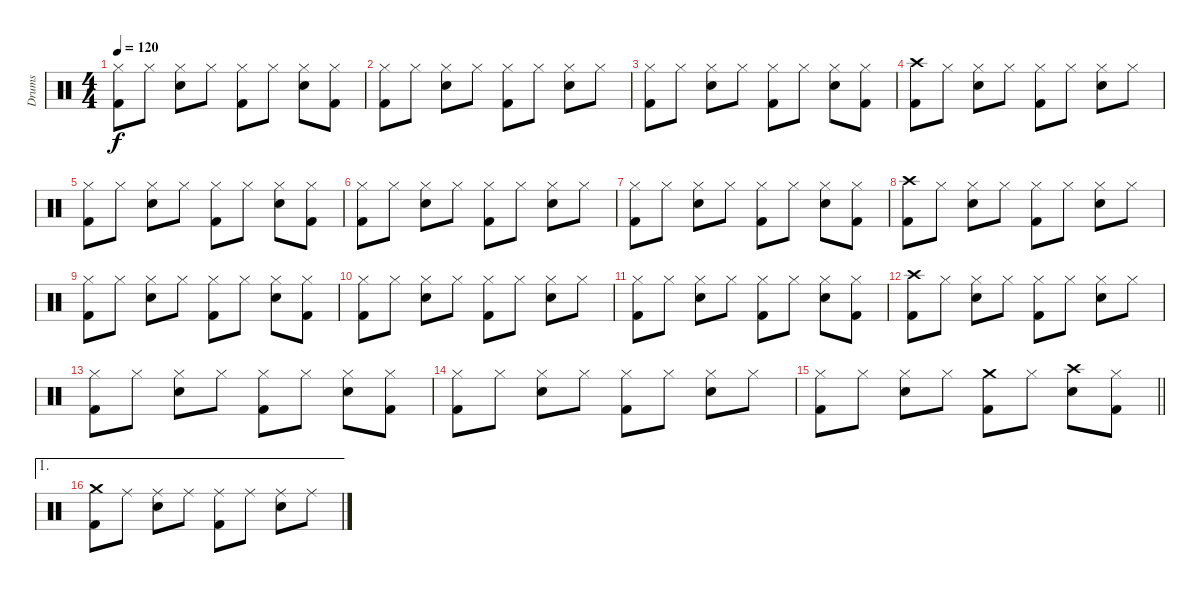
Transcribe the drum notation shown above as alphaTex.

\track ("Drums" "Drums") {instrument percussion}
\staff {score}
\articulation defaults
\ts (4 4)
\tempo 120
\clef neutral
\ks c
("Kick (hit) 2" "Hi-Hat (closed)").8{dy f} "Hi-Hat (closed)".8 ("Snare (hit) 2" "Hi-Hat (closed)").8 "Hi-Hat (closed)".8 ("Kick (hit) 2" "Hi-Hat (closed)").8 "Hi-Hat (closed)".8 ("Snare (hit) 2" "Hi-Hat (closed)").8 ("Kick (hit) 2" "Hi-Hat (closed)").8 |
("Kick (hit) 2" "Hi-Hat (closed)").8 "Hi-Hat (closed)".8 ("Snare (hit) 2" "Hi-Hat (closed)").8 "Hi-Hat (closed)".8 ("Kick (hit) 2" "Hi-Hat (closed)").8 "Hi-Hat (closed)".8 ("Snare (hit) 2" "Hi-Hat (closed)").8 "Hi-Hat (closed)".8 |
("Kick (hit) 2" "Hi-Hat (closed)").8 "Hi-Hat (closed)".8 ("Snare (hit) 2" "Hi-Hat (closed)").8 "Hi-Hat (closed)".8 ("Kick (hit) 2" "Hi-Hat (closed)").8 "Hi-Hat (closed)".8 ("Snare (hit) 2" "Hi-Hat (closed)").8 ("Kick (hit) 2" "Hi-Hat (closed)").8 |
("Kick (hit) 2" "Crash high (hit)").8 "Hi-Hat (closed)".8 ("Snare (hit) 2" "Hi-Hat (closed)").8 "Hi-Hat (closed)".8 ("Kick (hit) 2" "Hi-Hat (closed)").8 "Hi-Hat (closed)".8 ("Snare (hit) 2" "Hi-Hat (closed)").8 "Hi-Hat (closed)".8 |
("Kick (hit) 2" "Hi-Hat (closed)").8 "Hi-Hat (closed)".8 ("Snare (hit) 2" "Hi-Hat (closed)").8 "Hi-Hat (closed)".8 ("Kick (hit) 2" "Hi-Hat (closed)").8 "Hi-Hat (closed)".8 ("Snare (hit) 2" "Hi-Hat (closed)").8 ("Kick (hit) 2" "Hi-Hat (closed)").8 |
("Kick (hit) 2" "Hi-Hat (closed)").8 "Hi-Hat (closed)".8 ("Snare (hit) 2" "Hi-Hat (closed)").8 "Hi-Hat (closed)".8 ("Kick (hit) 2" "Hi-Hat (closed)").8 "Hi-Hat (closed)".8 ("Snare (hit) 2" "Hi-Hat (closed)").8 "Hi-Hat (closed)".8 |
("Kick (hit) 2" "Hi-Hat (closed)").8 "Hi-Hat (closed)".8 ("Snare (hit) 2" "Hi-Hat (closed)").8 "Hi-Hat (closed)".8 ("Kick (hit) 2" "Hi-Hat (closed)").8 "Hi-Hat (closed)".8 ("Snare (hit) 2" "Hi-Hat (closed)").8 ("Kick (hit) 2" "Hi-Hat (closed)").8 |
("Kick (hit) 2" "Crash high (hit)").8 "Hi-Hat (closed)".8 ("Snare (hit) 2" "Hi-Hat (closed)").8 "Hi-Hat (closed)".8 ("Kick (hit) 2" "Hi-Hat (closed)").8 "Hi-Hat (closed)".8 ("Snare (hit) 2" "Hi-Hat (closed)").8 "Hi-Hat (closed)".8 |
("Kick (hit) 2" "Hi-Hat (closed)").8 "Hi-Hat (closed)".8 ("Snare (hit) 2" "Hi-Hat (closed)").8 "Hi-Hat (closed)".8 ("Kick (hit) 2" "Hi-Hat (closed)").8 "Hi-Hat (closed)".8 ("Snare (hit) 2" "Hi-Hat (closed)").8 ("Kick (hit) 2" "Hi-Hat (closed)").8 |
("Kick (hit) 2" "Hi-Hat (closed)").8 "Hi-Hat (closed)".8 ("Snare (hit) 2" "Hi-Hat (closed)").8 "Hi-Hat (closed)".8 ("Kick (hit) 2" "Hi-Hat (closed)").8 "Hi-Hat (closed)".8 ("Snare (hit) 2" "Hi-Hat (closed)").8 "Hi-Hat (closed)".8 |
("Kick (hit) 2" "Hi-Hat (closed)").8 "Hi-Hat (closed)".8 ("Snare (hit) 2" "Hi-Hat (closed)").8 "Hi-Hat (closed)".8 ("Kick (hit) 2" "Hi-Hat (closed)").8 "Hi-Hat (closed)".8 ("Snare (hit) 2" "Hi-Hat (closed)").8 ("Kick (hit) 2" "Hi-Hat (closed)").8 |
("Kick (hit) 2" "Crash high (hit)").8 "Hi-Hat (closed)".8 ("Snare (hit) 2" "Hi-Hat (closed)").8 "Hi-Hat (closed)".8 ("Kick (hit) 2" "Hi-Hat (closed)").8 "Hi-Hat (closed)".8 ("Snare (hit) 2" "Hi-Hat (closed)").8 "Hi-Hat (closed)".8 |
("Kick (hit) 2" "Hi-Hat (closed)").8 "Hi-Hat (closed)".8 ("Snare (hit) 2" "Hi-Hat (closed)").8 "Hi-Hat (closed)".8 ("Kick (hit) 2" "Hi-Hat (closed)").8 "Hi-Hat (closed)".8 ("Snare (hit) 2" "Hi-Hat (closed)").8 ("Kick (hit) 2" "Hi-Hat (closed)").8 |
("Kick (hit) 2" "Hi-Hat (closed)").8 "Hi-Hat (closed)".8 ("Snare (hit) 2" "Hi-Hat (closed)").8 "Hi-Hat (closed)".8 ("Kick (hit) 2" "Hi-Hat (closed)").8 "Hi-Hat (closed)".8 ("Snare (hit) 2" "Hi-Hat (closed)").8 "Hi-Hat (closed)".8 |
\barLineRight lightlight
("Kick (hit) 2" "Hi-Hat (closed)").8 "Hi-Hat (closed)".8 ("Snare (hit) 2" "Hi-Hat (closed)").8 "Hi-Hat (closed)".8 ("Kick (hit) 2" "Crash medium (hit)").8 "Hi-Hat (closed)".8 ("Snare (hit) 2" "Crash high (hit)").8 ("Kick (hit) 2" "Hi-Hat (closed)").8 |
\ae 1
("Kick (hit) 2" "Crash medium (hit)").8 "Ride (middle)".8 ("Snare (hit) 2" "Ride (middle)").8 "Ride (middle)".8 ("Kick (hit) 2" "Ride (middle)").8 "Ride (middle)".8 ("Snare (hit) 2" "Ride (middle)").8 "Ride (middle)".8
